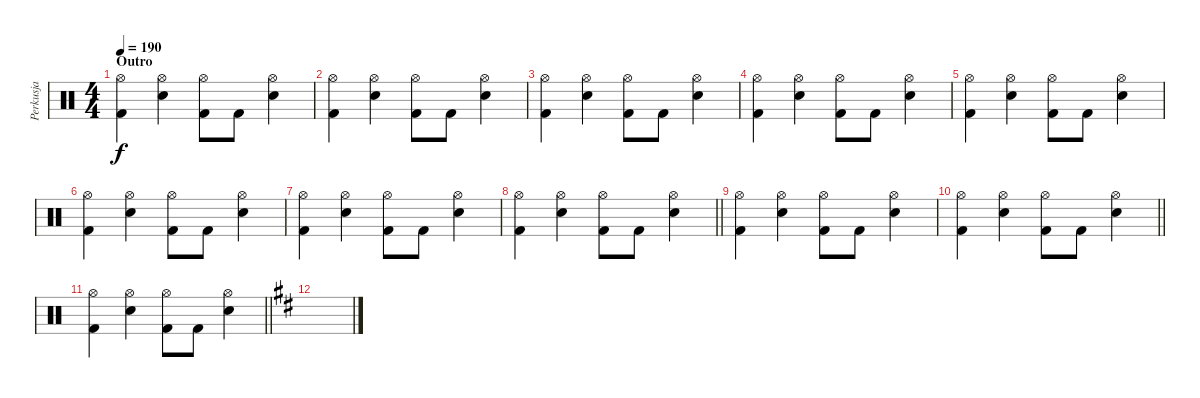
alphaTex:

\track ("Perkusja" "Perkusja") {instrument percussion}
\staff {score}
\articulation defaults
\ts (4 4)
\section ("" "Outro")
\tempo 190
\clef neutral
\ks c
("Kick (hit) 2" "Hi-Hat (open)").4{dy f} ("Electric Snare (hit)" "Hi-Hat (open)").4 ("Kick (hit) 2" "Hi-Hat (open)").8 "Kick (hit) 2".8 ("Electric Snare (hit)" "Hi-Hat (open)").4 |
("Kick (hit) 2" "Hi-Hat (open)").4 ("Electric Snare (hit)" "Hi-Hat (open)").4 ("Kick (hit) 2" "Hi-Hat (open)").8 "Kick (hit) 2".8 ("Electric Snare (hit)" "Hi-Hat (open)").4 |
("Kick (hit) 2" "Hi-Hat (open)").4 ("Electric Snare (hit)" "Hi-Hat (open)").4 ("Kick (hit) 2" "Hi-Hat (open)").8 "Kick (hit) 2".8 ("Electric Snare (hit)" "Hi-Hat (open)").4 |
("Kick (hit) 2" "Hi-Hat (open)").4 ("Electric Snare (hit)" "Hi-Hat (open)").4 ("Kick (hit) 2" "Hi-Hat (open)").8 "Kick (hit) 2".8 ("Electric Snare (hit)" "Hi-Hat (open)").4 |
("Kick (hit) 2" "Hi-Hat (open)").4 ("Electric Snare (hit)" "Hi-Hat (open)").4 ("Kick (hit) 2" "Hi-Hat (open)").8 "Kick (hit) 2".8 ("Electric Snare (hit)" "Hi-Hat (open)").4 |
("Kick (hit) 2" "Hi-Hat (open)").4 ("Electric Snare (hit)" "Hi-Hat (open)").4 ("Kick (hit) 2" "Hi-Hat (open)").8 "Kick (hit) 2".8 ("Electric Snare (hit)" "Hi-Hat (open)").4 |
("Kick (hit) 2" "Hi-Hat (open)").4 ("Electric Snare (hit)" "Hi-Hat (open)").4 ("Kick (hit) 2" "Hi-Hat (open)").8 "Kick (hit) 2".8 ("Electric Snare (hit)" "Hi-Hat (open)").4 |
\barLineRight lightlight
("Kick (hit) 2" "Hi-Hat (open)").4 ("Electric Snare (hit)" "Hi-Hat (open)").4 ("Kick (hit) 2" "Hi-Hat (open)").8 "Kick (hit) 2".8 ("Electric Snare (hit)" "Hi-Hat (open)").4 |
("Kick (hit) 2" "Hi-Hat (open)").4 ("Electric Snare (hit)" "Hi-Hat (open)").4 ("Kick (hit) 2" "Hi-Hat (open)").8 "Kick (hit) 2".8 ("Electric Snare (hit)" "Hi-Hat (open)").4 |
\barLineRight lightlight
("Kick (hit) 2" "Hi-Hat (open)").4 ("Electric Snare (hit)" "Hi-Hat (open)").4 ("Kick (hit) 2" "Hi-Hat (open)").8 "Kick (hit) 2".8 ("Electric Snare (hit)" "Hi-Hat (open)").4 |
\barLineRight lightlight
("Kick (hit) 2" "Hi-Hat (open)").4 ("Electric Snare (hit)" "Hi-Hat (open)").4 ("Kick (hit) 2" "Hi-Hat (open)").8 "Kick (hit) 2".8 ("Electric Snare (hit)" "Hi-Hat (open)").4 |
\ks d
